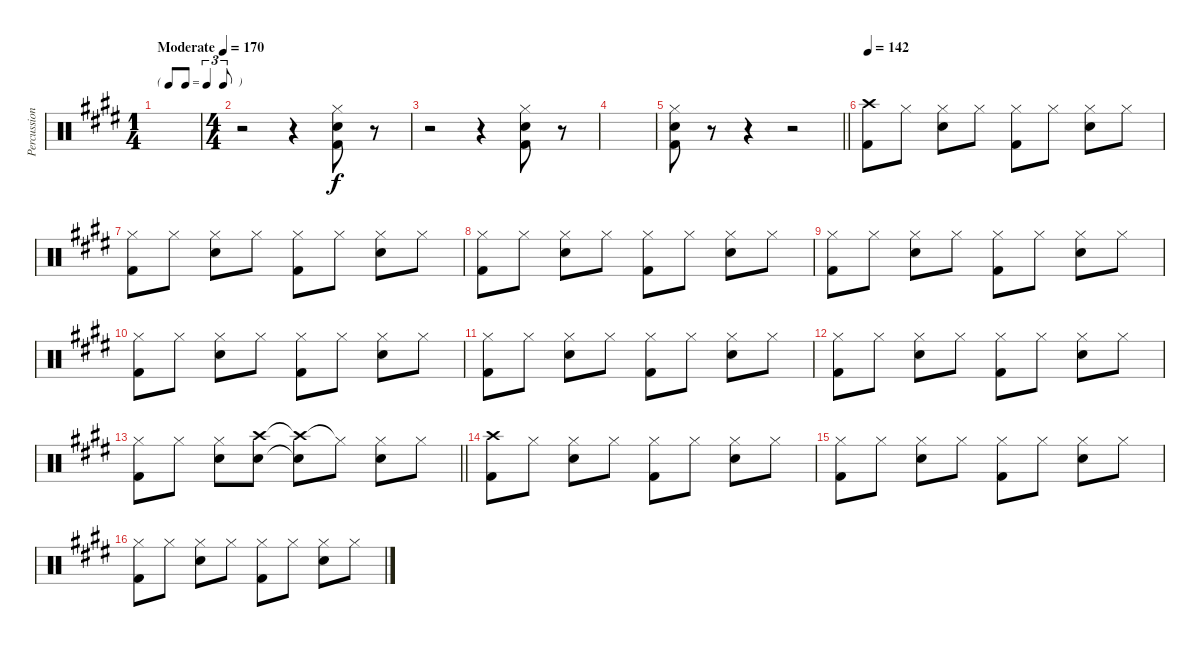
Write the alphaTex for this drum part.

\track ("Percussion" "Percussion") {instrument percussion}
\staff {score}
\articulation defaults
\ts (1 4)
\tf triplet8th
\tempo (170 "Moderate")
\clef neutral
\ks e
|
\ts (4 4)
r.2 r.4 ("Hi-Hat (closed)" "Snare (hit) 2" "Kick (hit) 2").8 r.8 |
r.2 r.4 ("Hi-Hat (closed)" "Snare (hit) 2" "Kick (hit) 2").8 r.8 |
|
\barLineRight lightlight
("Hi-Hat (closed)" "Snare (hit) 2" "Kick (hit) 2").8 r.8 r.4 r.2 |
\tempo 142
("Crash high (hit)" "Kick (hit) 2").8 "Hi-Hat (closed)".8 ("Hi-Hat (closed)" "Snare (hit) 2").8 "Hi-Hat (closed)".8 ("Hi-Hat (closed)" "Kick (hit) 2").8 "Hi-Hat (closed)".8 ("Hi-Hat (closed)" "Snare (hit) 2").8 "Hi-Hat (closed)".8 |
("Hi-Hat (closed)" "Kick (hit) 2").8 "Hi-Hat (closed)".8 ("Hi-Hat (closed)" "Snare (hit) 2").8 "Hi-Hat (closed)".8 ("Hi-Hat (closed)" "Kick (hit) 2").8 "Hi-Hat (closed)".8 ("Hi-Hat (closed)" "Snare (hit) 2").8 "Hi-Hat (closed)".8 |
("Hi-Hat (closed)" "Kick (hit) 2").8 "Hi-Hat (closed)".8 ("Hi-Hat (closed)" "Snare (hit) 2").8 "Hi-Hat (closed)".8 ("Hi-Hat (closed)" "Kick (hit) 2").8 "Hi-Hat (closed)".8 ("Hi-Hat (closed)" "Snare (hit) 2").8 "Hi-Hat (closed)".8 |
("Hi-Hat (closed)" "Kick (hit) 2").8 "Hi-Hat (closed)".8 ("Hi-Hat (closed)" "Snare (hit) 2").8 "Hi-Hat (closed)".8 ("Hi-Hat (closed)" "Kick (hit) 2").8 "Hi-Hat (closed)".8 ("Hi-Hat (closed)" "Snare (hit) 2").8 "Hi-Hat (closed)".8 |
("Hi-Hat (closed)" "Kick (hit) 2").8 "Hi-Hat (closed)".8 ("Hi-Hat (closed)" "Snare (hit) 2").8 "Hi-Hat (closed)".8 ("Hi-Hat (closed)" "Kick (hit) 2").8 "Hi-Hat (closed)".8 ("Hi-Hat (closed)" "Snare (hit) 2").8 "Hi-Hat (closed)".8 |
("Hi-Hat (closed)" "Kick (hit) 2").8 "Hi-Hat (closed)".8 ("Hi-Hat (closed)" "Snare (hit) 2").8 "Hi-Hat (closed)".8 ("Hi-Hat (closed)" "Kick (hit) 2").8 "Hi-Hat (closed)".8 ("Hi-Hat (closed)" "Snare (hit) 2").8 "Hi-Hat (closed)".8 |
("Hi-Hat (closed)" "Kick (hit) 2").8 "Hi-Hat (closed)".8 ("Hi-Hat (closed)" "Snare (hit) 2").8 "Hi-Hat (closed)".8 ("Hi-Hat (closed)" "Kick (hit) 2").8 "Hi-Hat (closed)".8 ("Hi-Hat (closed)" "Snare (hit) 2").8 "Hi-Hat (closed)".8 |
\barLineRight lightlight
("Hi-Hat (closed)" "Kick (hit) 2").8 "Hi-Hat (closed)".8 ("Hi-Hat (closed)" "Snare (hit) 2").8 ("Crash high (hit)" "Snare (hit) 2").8 ("Crash high (hit)"{t} "Snare (hit) 2"{t}).8 "Hi-Hat (closed)"{t}.8 ("Hi-Hat (closed)" "Snare (hit) 2").8 "Hi-Hat (closed)".8 |
("Crash high (hit)" "Kick (hit) 2").8 "Hi-Hat (closed)".8 ("Hi-Hat (closed)" "Snare (hit) 2").8 "Hi-Hat (closed)".8 ("Hi-Hat (closed)" "Kick (hit) 2").8 "Hi-Hat (closed)".8 ("Hi-Hat (closed)" "Snare (hit) 2").8 "Hi-Hat (closed)".8 |
("Hi-Hat (closed)" "Kick (hit) 2").8 "Hi-Hat (closed)".8 ("Hi-Hat (closed)" "Snare (hit) 2").8 "Hi-Hat (closed)".8 ("Hi-Hat (closed)" "Kick (hit) 2").8 "Hi-Hat (closed)".8 ("Hi-Hat (closed)" "Snare (hit) 2").8 "Hi-Hat (closed)".8 |
("Hi-Hat (closed)" "Kick (hit) 2").8 "Hi-Hat (closed)".8 ("Hi-Hat (closed)" "Snare (hit) 2").8 "Hi-Hat (closed)".8 ("Hi-Hat (closed)" "Kick (hit) 2").8 "Hi-Hat (closed)".8 ("Hi-Hat (closed)" "Snare (hit) 2").8 "Hi-Hat (closed)".8
